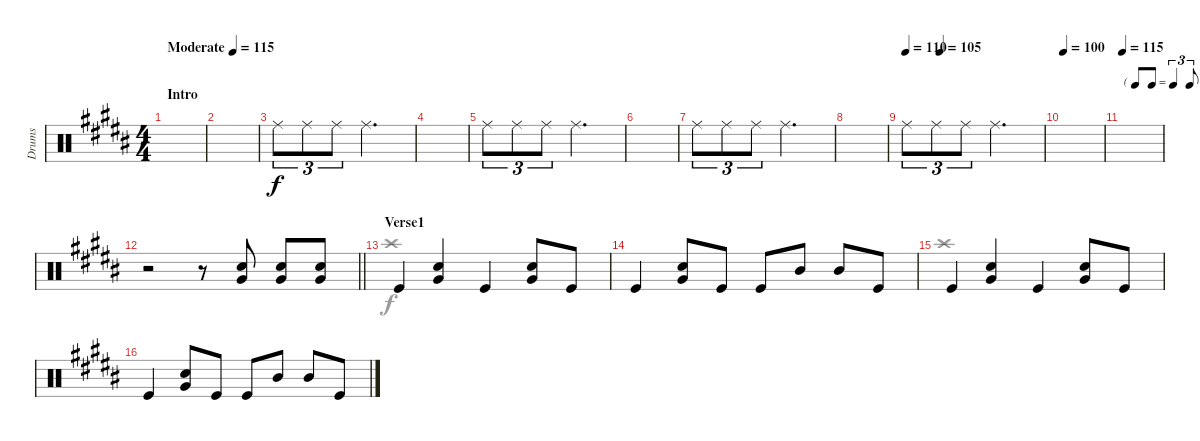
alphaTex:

\track ("Drums" "Drums") {instrument percussion}
\staff {score}
\articulation defaults
\voice
\ts (4 4)
\section ("" "Intro")
\tempo (115 "Moderate")
\clef neutral
\ks b
|
|
"Ride (middle)".8{tu (3 2)} "Ride (middle)".8{tu (3 2)} "Ride (middle)".8{tu (3 2)} "Ride (middle)".2{d} |
|
"Ride (middle)".8{tu (3 2)} "Ride (middle)".8{tu (3 2)} "Ride (middle)".8{tu (3 2)} "Ride (middle)".2{d} |
|
"Ride (middle)".8{tu (3 2)} "Ride (middle)".8{tu (3 2)} "Ride (middle)".8{tu (3 2)} "Ride (middle)".2{d} |
|
\tempo 110
\tempo (105 0.25)
"Ride (middle)".8{tu (3 2)} "Ride (middle)".8{tu (3 2)} "Ride (middle)".8{tu (3 2)} "Ride (middle)".2{d} |
\tempo 100
|
\tf triplet8th
\tempo 115
|
\barLineRight lightlight
r.2 r.8 ("Snare (hit) 2" "Very Low Tom (hit)").8 ("Snare (hit) 2" "Very Low Tom (hit)").8 ("Snare (hit) 2" "Very Low Tom (hit)").8 |
\section ("" "Verse1")
"Kick (hit)".4 ("Snare (hit) 2" "Very Low Tom (hit)").4 "Kick (hit)".4 ("Snare (hit) 2" "Very Low Tom (hit)").8 "Kick (hit)".8 |
"Kick (hit)".4 ("Snare (hit) 2" "Very Low Tom (hit)").8 "Kick (hit)".8 "Kick (hit)".8 "Mid Tom (hit)".8 "Mid Tom (hit)".8 "Kick (hit)".8 |
"Kick (hit)".4 ("Snare (hit) 2" "Very Low Tom (hit)").4 "Kick (hit)".4 ("Snare (hit) 2" "Very Low Tom (hit)").8 "Kick (hit)".8 |
"Kick (hit)".4 ("Snare (hit) 2" "Very Low Tom (hit)").8 "Kick (hit)".8 "Kick (hit)".8 "Mid Tom (hit)".8 "Mid Tom (hit)".8 "Kick (hit)".8
\voice
\clef neutral
\ottava regular
\simile none
\ks b
|
|
|
|
|
|
|
|
|
|
|
\barLineRight lightlight
|
"Crash high (hit)".1 |
|
"Crash high (hit)".1 |
